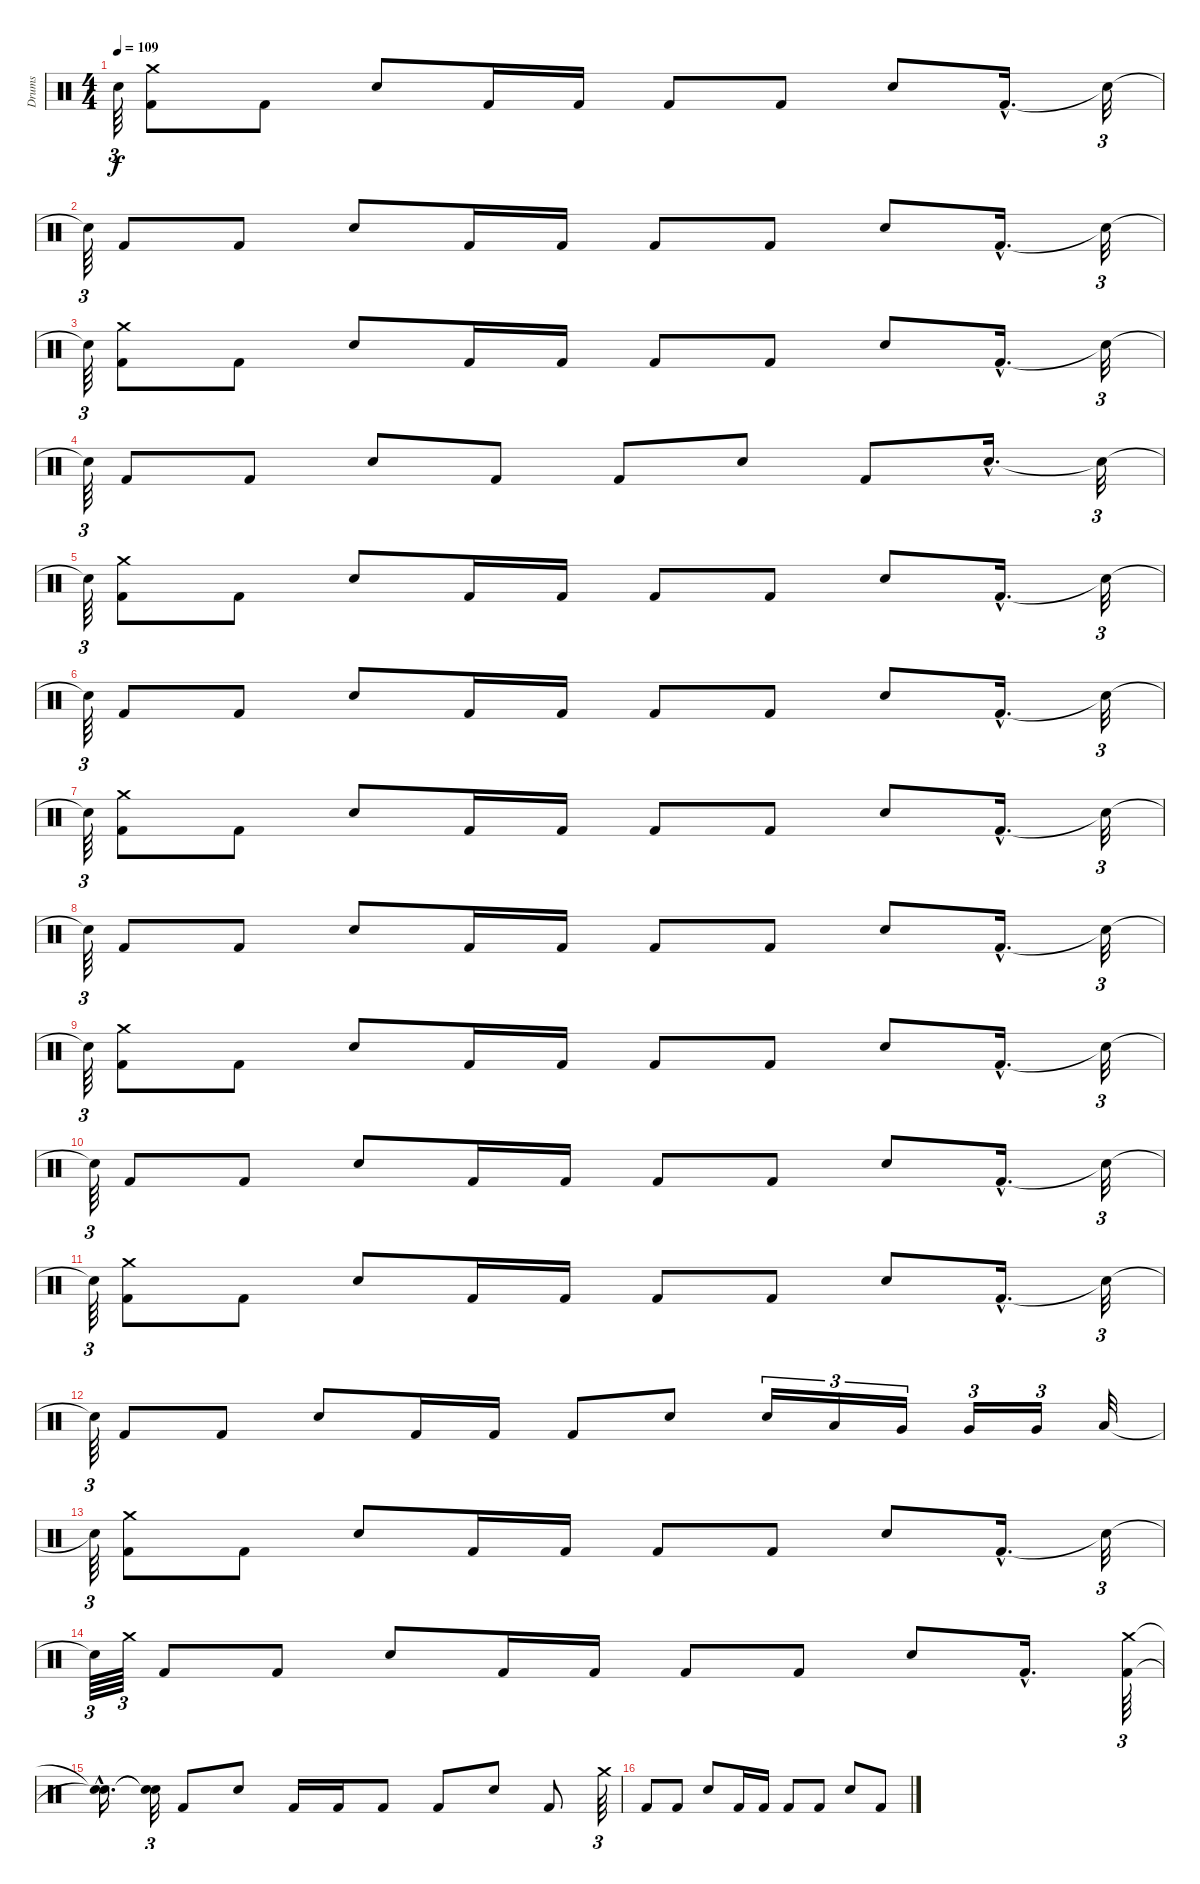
\track ("Drums" "Drums") {instrument percussion}
\staff {score}
\articulation defaults
\ts (4 4)
\tempo 109
\clef neutral
\ks c "Snare (hit)"{t}.64{tu (3 2) dy f}
("Crash medium (hit)" "Kick (hit) 2").8 "Kick (hit) 2".8 "Snare (hit) 2".8 "Kick (hit) 2".16 "Kick (hit) 2".16 "Kick (hit) 2".8 "Kick (hit) 2".8 "Snare (hit) 2".8 "Kick (hit) 2"{hac}.16{d} "Snare (hit)"{t}.32{tu (3 2)} |
"Snare (hit)"{t}.64{tu (3 2)} "Kick (hit) 2".8 "Kick (hit) 2".8 "Snare (hit) 2".8 "Kick (hit) 2".16 "Kick (hit) 2".16 "Kick (hit) 2".8 "Kick (hit) 2".8 "Snare (hit) 2".8 "Kick (hit) 2"{hac}.16{d} "Snare (hit)"{t}.32{tu (3 2)} |
"Snare (hit)"{t}.64{tu (3 2)} ("Crash medium (hit)" "Kick (hit) 2").8 "Kick (hit) 2".8 "Snare (hit) 2".8 "Kick (hit) 2".16 "Kick (hit) 2".16 "Kick (hit) 2".8 "Kick (hit) 2".8 "Snare (hit) 2".8 "Kick (hit) 2"{hac}.16{d} "Snare (hit)"{t}.32{tu (3 2)} |
"Snare (hit)"{t}.64{tu (3 2)} "Kick (hit) 2".8 "Kick (hit) 2".8 "Snare (hit) 2".8 "Kick (hit) 2".8 "Kick (hit) 2".8 "Snare (hit) 2".8 "Kick (hit) 2".8 "Snare (hit) 2"{hac}.16{d} "Snare (hit)"{t}.32{tu (3 2)} |
"Snare (hit)"{t}.64{tu (3 2)} ("Crash medium (hit)" "Kick (hit) 2").8 "Kick (hit) 2".8 "Snare (hit) 2".8 "Kick (hit) 2".16 "Kick (hit) 2".16 "Kick (hit) 2".8 "Kick (hit) 2".8 "Snare (hit) 2".8 "Kick (hit) 2"{hac}.16{d} "Snare (hit)"{t}.32{tu (3 2)} |
"Snare (hit)"{t}.64{tu (3 2)} "Kick (hit) 2".8 "Kick (hit) 2".8 "Snare (hit) 2".8 "Kick (hit) 2".16 "Kick (hit) 2".16 "Kick (hit) 2".8 "Kick (hit) 2".8 "Snare (hit) 2".8 "Kick (hit) 2"{hac}.16{d} "Snare (hit)"{t}.32{tu (3 2)} |
"Snare (hit)"{t}.64{tu (3 2)} ("Crash medium (hit)" "Kick (hit) 2").8 "Kick (hit) 2".8 "Snare (hit) 2".8 "Kick (hit) 2".16 "Kick (hit) 2".16 "Kick (hit) 2".8 "Kick (hit) 2".8 "Snare (hit) 2".8 "Kick (hit) 2"{hac}.16{d} "Snare (hit)"{t}.32{tu (3 2)} |
"Snare (hit)"{t}.64{tu (3 2)} "Kick (hit) 2".8 "Kick (hit) 2".8 "Snare (hit) 2".8 "Kick (hit) 2".16 "Kick (hit) 2".16 "Kick (hit) 2".8 "Kick (hit) 2".8 "Snare (hit) 2".8 "Kick (hit) 2"{hac}.16{d} "Snare (hit)"{t}.32{tu (3 2)} |
"Snare (hit)"{t}.64{tu (3 2)} ("Crash medium (hit)" "Kick (hit) 2").8 "Kick (hit) 2".8 "Snare (hit) 2".8 "Kick (hit) 2".16 "Kick (hit) 2".16 "Kick (hit) 2".8 "Kick (hit) 2".8 "Snare (hit) 2".8 "Kick (hit) 2"{hac}.16{d} "Snare (hit)"{t}.32{tu (3 2)} |
"Snare (hit)"{t}.64{tu (3 2)} "Kick (hit) 2".8 "Kick (hit) 2".8 "Snare (hit) 2".8 "Kick (hit) 2".16 "Kick (hit) 2".16 "Kick (hit) 2".8 "Kick (hit) 2".8 "Snare (hit) 2".8 "Kick (hit) 2"{hac}.16{d} "Snare (hit)"{t}.32{tu (3 2)} |
"Snare (hit)"{t}.64{tu (3 2)} ("Crash medium (hit)" "Kick (hit) 2").8 "Kick (hit) 2".8 "Snare (hit) 2".8 "Kick (hit) 2".16 "Kick (hit) 2".16 "Kick (hit) 2".8 "Kick (hit) 2".8 "Snare (hit) 2".8 "Kick (hit) 2"{hac}.16{d} "Snare (hit)"{t}.32{tu (3 2)} |
"Snare (hit)"{t}.64{tu (3 2)} "Kick (hit) 2".8 "Kick (hit) 2".8 "Snare (hit) 2".8 "Kick (hit) 2".16 "Kick (hit) 2".16 "Kick (hit) 2".8 "Snare (hit) 2".8 "Snare (hit) 2".16{tu (3 2)} "Low Tom (hit)".16{tu (3 2)} "Very Low Tom (hit)".16{tu (3 2)} "Very Low Tom (hit)".16{tu (3 2)} "Very Low Tom (hit)".16{tu (3 2)} "Low Floor Tom (hit)".32 |
"Snare (hit)"{t}.64{tu (3 2)} ("Crash medium (hit)" "Kick (hit) 2").8 "Kick (hit) 2".8 "Snare (hit) 2".8 "Kick (hit) 2".16 "Kick (hit) 2".16 "Kick (hit) 2".8 "Kick (hit) 2".8 "Snare (hit) 2".8 "Kick (hit) 2"{hac}.16{d} "Snare (hit)"{t}.32{tu (3 2)} |
"Snare (hit)"{t}.64{tu (3 2)} "Crash medium (hit)".64{tu (3 2)} "Kick (hit) 2".8 "Kick (hit) 2".8 "Snare (hit) 2".8 "Kick (hit) 2".16 "Kick (hit) 2".16 "Kick (hit) 2".8 "Kick (hit) 2".8 "Snare (hit) 2".8 "Kick (hit) 2"{hac}.16{d} ("Crash medium (hit)" "Kick (hit) 2").64{tu (3 2)} |
("Snare (hit)"{hac t} "Snare (hit)"{hac t}).16{d} ("Snare (hit)"{t} "Snare (hit)"{t}).32{tu (3 2)} "Kick (hit) 2".8 "Snare (hit) 2".8 "Kick (hit) 2".16 "Kick (hit) 2".16 "Kick (hit) 2".8 "Kick (hit) 2".8 "Snare (hit) 2".8 "Kick (hit) 2".8 "Crash medium (hit)".64{tu (3 2)} |
"Kick (hit) 2".8 "Kick (hit) 2".8 "Snare (hit) 2".8 "Kick (hit) 2".16 "Kick (hit) 2".16 "Kick (hit) 2".8 "Kick (hit) 2".8 "Snare (hit) 2".8 "Kick (hit) 2".8
